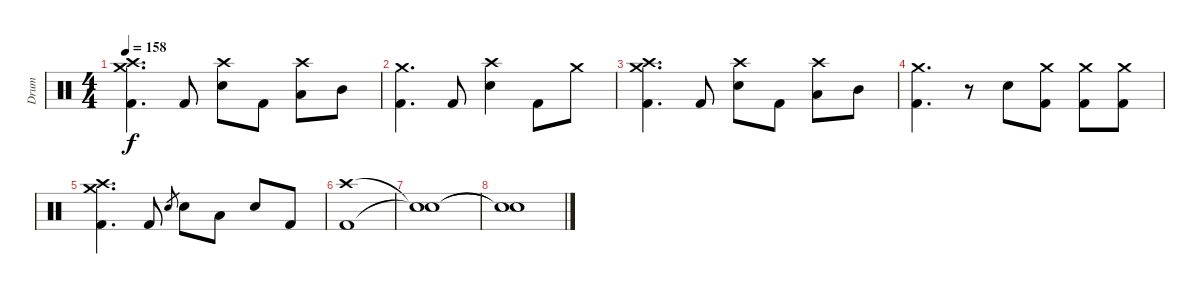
\track ("Drum" "Drum") {instrument percussion}
\staff {score}
\articulation defaults
\ts (4 4)
\tempo 158
\clef neutral
\ks c
("Crash medium (hit)" "Crash high (hit)" "Kick (hit) 2").4{d dy f} "Kick (hit) 2".8 ("Crash high (hit)" "Electric Snare (hit)").8 "Kick (hit) 2".8 ("Crash high (hit)" "Low Tom (hit)").8 "Mid Tom (hit)".8 |
("Crash medium (hit)" "Kick (hit) 2").4{d} "Kick (hit) 2".8 ("Crash high (hit)" "Electric Snare (hit)").4 "Kick (hit) 2".8 "Crash medium (hit)".8 |
("Crash medium (hit)" "Crash high (hit)" "Kick (hit) 2").4{d} "Kick (hit) 2".8 ("Crash high (hit)" "Electric Snare (hit)").8 "Kick (hit) 2".8 ("Crash high (hit)" "Low Tom (hit)").8 "Mid Tom (hit)".8 |
("Crash medium (hit)" "Kick (hit) 2").4{d} r.8 "Electric Snare (hit)".8 ("Crash medium (hit)" "Kick (hit) 2").8 ("Crash medium (hit)" "Kick (hit) 2").8 ("Crash medium (hit)" "Kick (hit) 2").8 |
("Crash medium (hit)" "Crash high (hit)" "Kick (hit) 2").4{d} "Kick (hit) 2".8 "Electric Snare (hit)".8{gr} "Electric Snare (hit)".8 "Low Tom (hit)".8 "Electric Snare (hit)".8 "Kick (hit) 2".8 |
("Crash high (hit)" "Kick (hit) 2").1 |
("Snare (hit)"{t} "Snare (hit)"{t}).1 |
("Snare (hit)"{t} "Snare (hit)"{t}).1
